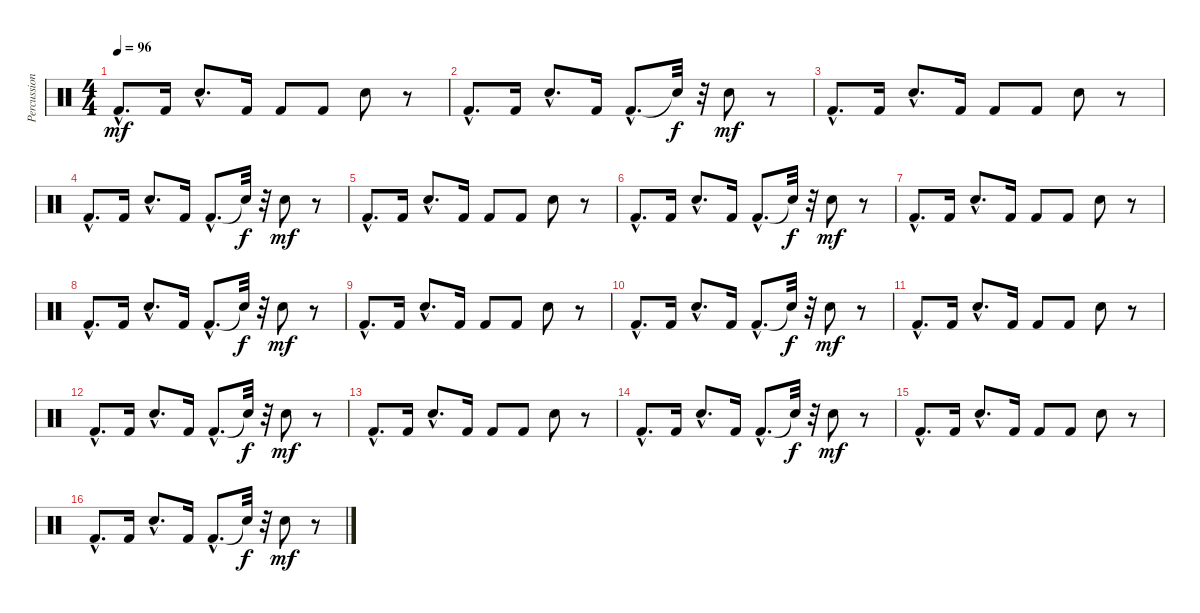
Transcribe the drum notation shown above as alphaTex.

\track ("Percussion" "Percussion") {instrument percussion}
\staff {score}
\articulation defaults
\ts (4 4)
\tempo 96
\clef neutral
\ks c "Kick (hit) 2"{hac}.8{d dy mf} "Kick (hit) 2".16 "Electric Snare (hit)"{hac}.8{d} "Kick (hit) 2".16 "Kick (hit) 2".8 "Kick (hit) 2".8 "Electric Snare (hit)".8
r.8 |
"Kick (hit) 2"{hac}.8{d} "Kick (hit) 2".16 "Electric Snare (hit)"{hac}.8{d} "Kick (hit) 2".16 "Kick (hit) 2"{hac}.8{d} "Snare (hit)"{t}.32{dy f} r.32 "Electric Snare (hit)".8{dy mf} r.8 |
"Kick (hit) 2"{hac}.8{d} "Kick (hit) 2".16 "Electric Snare (hit)"{hac}.8{d} "Kick (hit) 2".16 "Kick (hit) 2".8 "Kick (hit) 2".8 "Electric Snare (hit)".8 r.8 |
"Kick (hit) 2"{hac}.8{d} "Kick (hit) 2".16 "Electric Snare (hit)"{hac}.8{d} "Kick (hit) 2".16 "Kick (hit) 2"{hac}.8{d} "Snare (hit)"{t}.32{dy f} r.32 "Electric Snare (hit)".8{dy mf} r.8 |
"Kick (hit) 2"{hac}.8{d} "Kick (hit) 2".16 "Electric Snare (hit)"{hac}.8{d} "Kick (hit) 2".16 "Kick (hit) 2".8 "Kick (hit) 2".8 "Electric Snare (hit)".8 r.8 |
"Kick (hit) 2"{hac}.8{d} "Kick (hit) 2".16 "Electric Snare (hit)"{hac}.8{d} "Kick (hit) 2".16 "Kick (hit) 2"{hac}.8{d} "Snare (hit)"{t}.32{dy f} r.32 "Electric Snare (hit)".8{dy mf} r.8 |
"Kick (hit) 2"{hac}.8{d} "Kick (hit) 2".16 "Electric Snare (hit)"{hac}.8{d} "Kick (hit) 2".16 "Kick (hit) 2".8 "Kick (hit) 2".8 "Electric Snare (hit)".8 r.8 |
"Kick (hit) 2"{hac}.8{d} "Kick (hit) 2".16 "Electric Snare (hit)"{hac}.8{d} "Kick (hit) 2".16 "Kick (hit) 2"{hac}.8{d} "Snare (hit)"{t}.32{dy f} r.32 "Electric Snare (hit)".8{dy mf} r.8 |
"Kick (hit) 2"{hac}.8{d} "Kick (hit) 2".16 "Electric Snare (hit)"{hac}.8{d} "Kick (hit) 2".16 "Kick (hit) 2".8 "Kick (hit) 2".8 "Electric Snare (hit)".8 r.8 |
"Kick (hit) 2"{hac}.8{d} "Kick (hit) 2".16 "Electric Snare (hit)"{hac}.8{d} "Kick (hit) 2".16 "Kick (hit) 2"{hac}.8{d} "Snare (hit)"{t}.32{dy f} r.32 "Electric Snare (hit)".8{dy mf} r.8 |
"Kick (hit) 2"{hac}.8{d} "Kick (hit) 2".16 "Electric Snare (hit)"{hac}.8{d} "Kick (hit) 2".16 "Kick (hit) 2".8 "Kick (hit) 2".8 "Electric Snare (hit)".8 r.8 |
"Kick (hit) 2"{hac}.8{d} "Kick (hit) 2".16 "Electric Snare (hit)"{hac}.8{d} "Kick (hit) 2".16 "Kick (hit) 2"{hac}.8{d} "Snare (hit)"{t}.32{dy f} r.32 "Electric Snare (hit)".8{dy mf} r.8 |
"Kick (hit) 2"{hac}.8{d} "Kick (hit) 2".16 "Electric Snare (hit)"{hac}.8{d} "Kick (hit) 2".16 "Kick (hit) 2".8 "Kick (hit) 2".8 "Electric Snare (hit)".8 r.8 |
"Kick (hit) 2"{hac}.8{d} "Kick (hit) 2".16 "Electric Snare (hit)"{hac}.8{d} "Kick (hit) 2".16 "Kick (hit) 2"{hac}.8{d} "Snare (hit)"{t}.32{dy f} r.32 "Electric Snare (hit)".8{dy mf} r.8 |
"Kick (hit) 2"{hac}.8{d} "Kick (hit) 2".16 "Electric Snare (hit)"{hac}.8{d} "Kick (hit) 2".16 "Kick (hit) 2".8 "Kick (hit) 2".8 "Electric Snare (hit)".8 r.8 |
"Kick (hit) 2"{hac}.8{d} "Kick (hit) 2".16 "Electric Snare (hit)"{hac}.8{d} "Kick (hit) 2".16 "Kick (hit) 2"{hac}.8{d} "Snare (hit)"{t}.32{dy f} r.32 "Electric Snare (hit)".8{dy mf} r.8
